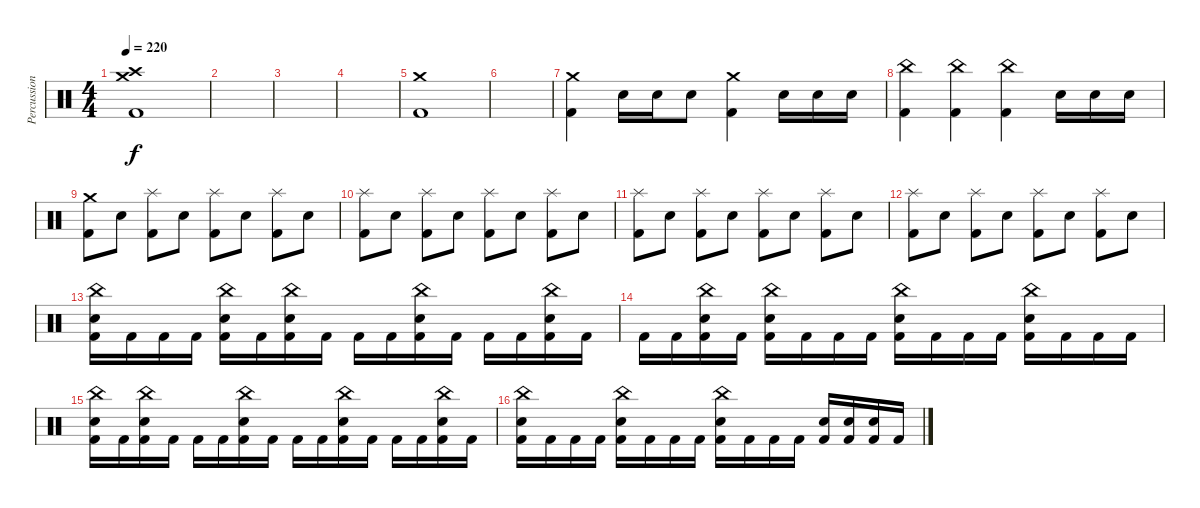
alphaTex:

\track ("Percussion" "Percussion") {instrument percussion}
\staff {score}
\articulation defaults
\ts (4 4)
\tempo 220
\clef neutral
\ks c
("Crash high (hit)" "Crash medium (hit)" "Kick (hit) 2").1{dy f} |
|
|
|
("Crash medium (hit)" "Kick (hit) 2").1 |
|
("Kick (hit) 2" "Crash medium (hit)").4 "Snare (hit) 2".16 "Snare (hit) 2".16 "Snare (hit) 2".8 ("Crash medium (hit)" "Kick (hit) 2").4 "Snare (hit) 2".16 "Snare (hit) 2".16 "Snare (hit) 2".16 |
("China (hit)" "Kick (hit) 2").4 ("China (hit)" "Kick (hit) 2").4 ("China (hit)" "Kick (hit) 2").4 "Snare (hit) 2".16 "Snare (hit) 2".16 "Snare (hit) 2".16 |
("Crash medium (hit)" "Kick (hit) 2").8 "Snare (hit) 2".8 ("Splash (hit)" "Kick (hit) 2").8 "Snare (hit) 2".8 ("Splash (hit)" "Kick (hit) 2").8 "Snare (hit) 2".8 ("Splash (hit)" "Kick (hit) 2").8 "Snare (hit) 2".8 |
("Splash (hit)" "Kick (hit) 2").8 "Snare (hit) 2".8 ("Splash (hit)" "Kick (hit) 2").8 "Snare (hit) 2".8 ("Splash (hit)" "Kick (hit) 2").8 "Snare (hit) 2".8 ("Splash (hit)" "Kick (hit) 2").8 "Snare (hit) 2".8 |
("Splash (hit)" "Kick (hit) 2").8 "Snare (hit) 2".8 ("Splash (hit)" "Kick (hit) 2").8 "Snare (hit) 2".8 ("Splash (hit)" "Kick (hit) 2").8 "Snare (hit) 2".8 ("Splash (hit)" "Kick (hit) 2").8 "Snare (hit) 2".8 |
("Splash (hit)" "Kick (hit) 2").8 "Snare (hit) 2".8 ("Splash (hit)" "Kick (hit) 2").8 "Snare (hit) 2".8 ("Splash (hit)" "Kick (hit) 2").8 "Snare (hit) 2".8 ("Splash (hit)" "Kick (hit) 2").8 "Snare (hit) 2".8 |
("Snare (hit) 2" "China (hit)" "Kick (hit) 2").16 "Kick (hit) 2".16 "Kick (hit) 2".16 "Kick (hit) 2".16 ("Snare (hit) 2" "China (hit)" "Kick (hit) 2").16 "Kick (hit) 2".16 ("Snare (hit) 2" "China (hit)" "Kick (hit) 2").16 "Kick (hit) 2".16 "Kick (hit) 2".16 "Kick (hit) 2".16 ("Snare (hit) 2" "China (hit)" "Kick (hit) 2").16 "Kick (hit) 2".16 "Kick (hit) 2".16 "Kick (hit) 2".16 ("Snare (hit) 2" "China (hit)" "Kick (hit) 2").16 "Kick (hit) 2".16 |
"Kick (hit) 2".16 "Kick (hit) 2".16 ("China (hit)" "Snare (hit) 2" "Kick (hit) 2").16 "Kick (hit) 2".16 ("China (hit)" "Snare (hit) 2" "Kick (hit) 2").16 "Kick (hit) 2".16 "Kick (hit) 2".16 "Kick (hit) 2".16 ("Snare (hit) 2" "China (hit)" "Kick (hit) 2").16 "Kick (hit) 2".16 "Kick (hit) 2".16 "Kick (hit) 2".16 ("Snare (hit) 2" "China (hit)" "Kick (hit) 2").16 "Kick (hit) 2".16 "Kick (hit) 2".16 "Kick (hit) 2".16 |
("Snare (hit) 2" "China (hit)" "Kick (hit) 2").16 "Kick (hit) 2".16 ("Snare (hit) 2" "China (hit)" "Kick (hit) 2").16 "Kick (hit) 2".16 "Kick (hit) 2".16 "Kick (hit) 2".16 ("Snare (hit) 2" "China (hit)" "Kick (hit) 2").16 "Kick (hit) 2".16 "Kick (hit) 2".16 "Kick (hit) 2".16 ("Snare (hit) 2" "China (hit)" "Kick (hit) 2").16 "Kick (hit) 2".16 "Kick (hit) 2".16 "Kick (hit) 2".16 ("Snare (hit) 2" "China (hit)" "Kick (hit) 2").16 "Kick (hit) 2".16 |
("Snare (hit) 2" "China (hit)" "Kick (hit) 2").16 "Kick (hit) 2".16 "Kick (hit) 2".16 "Kick (hit) 2".16 ("Snare (hit) 2" "China (hit)" "Kick (hit) 2").16 "Kick (hit) 2".16 "Kick (hit) 2".16 "Kick (hit) 2".16 ("Snare (hit) 2" "China (hit)" "Kick (hit) 2").16 "Kick (hit) 2".16 "Kick (hit) 2".16 "Kick (hit) 2".16 ("Snare (hit) 2" "Kick (hit) 2").16 ("Snare (hit) 2" "Kick (hit) 2").16 ("Snare (hit) 2" "Kick (hit) 2").16 "Kick (hit) 2".16
